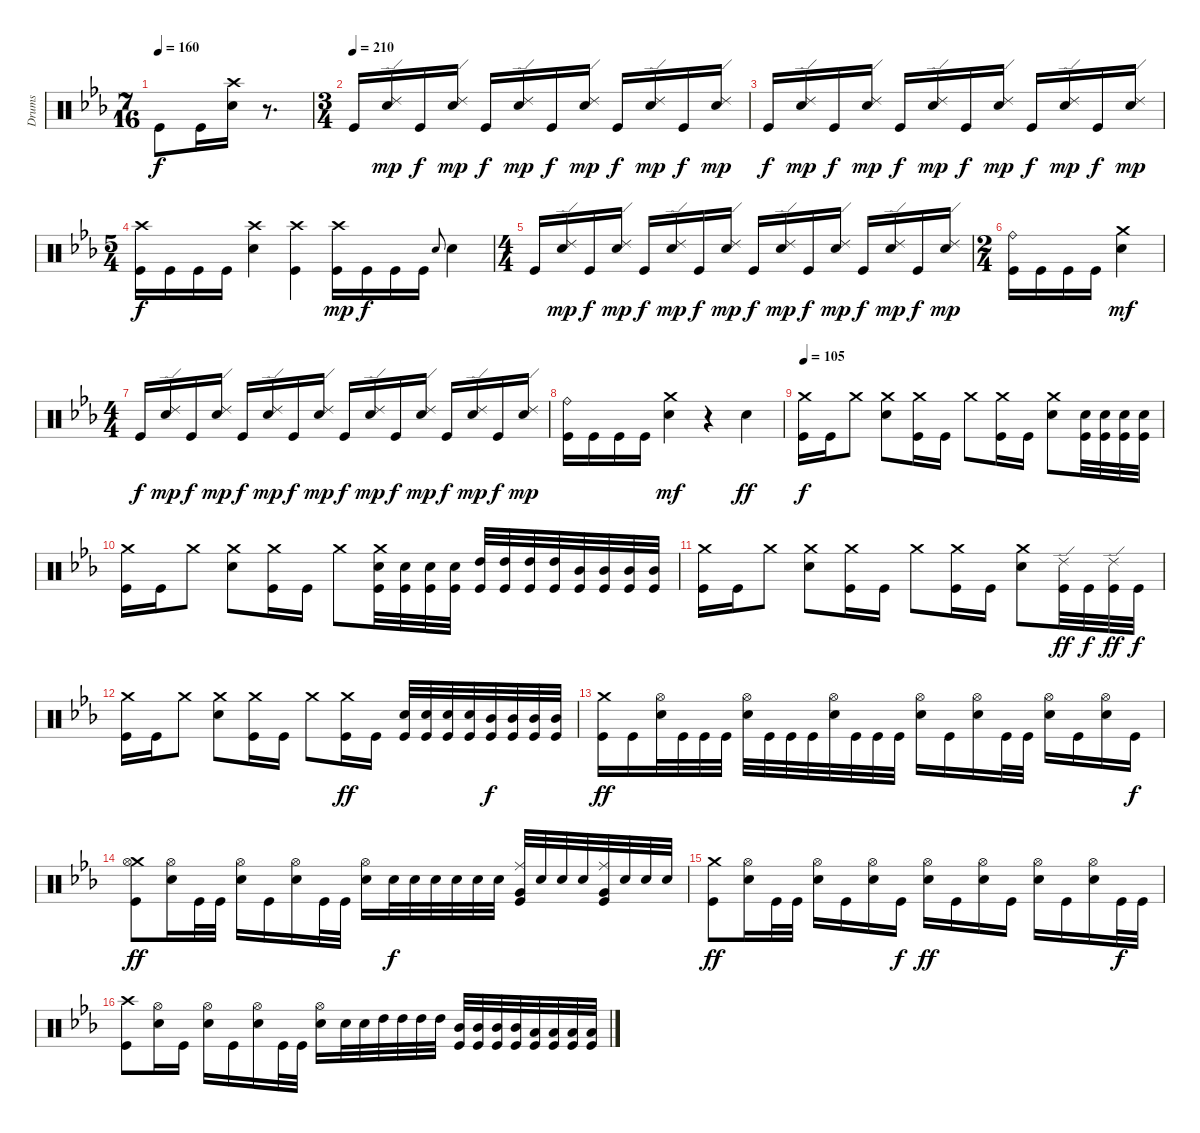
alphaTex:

\track ("Drums" "Drums") {instrument percussion}
\staff {score}
\articulation defaults
\ts (7 16)
\tempo 160
\clef neutral
\ks cminor "Kick (hit)".8{dy f} "Kick (hit)".16
("Crash high (hit)" "Electric Snare (hit)").16 r.8{d} |
\ts (3 4)
\tempo (210)
"Kick (hit)".16 ("Ride (edge) 2" "Electric Snare (hit)").16{dy mp} "Kick (hit)".16{dy f} ("Ride (edge) 2" "Electric Snare (hit)").16{dy mp} "Kick (hit)".16{dy f} ("Ride (edge) 2" "Electric Snare (hit)").16{dy mp} "Kick (hit)".16{dy f} ("Ride (edge) 2" "Electric Snare (hit)").16{dy mp} "Kick (hit)".16{dy f} ("Ride (edge) 2" "Electric Snare (hit)").16{dy mp} "Kick (hit)".16{dy f} ("Ride (edge) 2" "Electric Snare (hit)").16{dy mp} |
"Kick (hit)".16{dy f} ("Ride (edge) 2" "Electric Snare (hit)").16{dy mp} "Kick (hit)".16{dy f} ("Ride (edge) 2" "Electric Snare (hit)").16{dy mp} "Kick (hit)".16{dy f} ("Ride (edge) 2" "Electric Snare (hit)").16{dy mp} "Kick (hit)".16{dy f} ("Ride (edge) 2" "Electric Snare (hit)").16{dy mp} "Kick (hit)".16{dy f} ("Ride (edge) 2" "Electric Snare (hit)").16{dy mp} "Kick (hit)".16{dy f} ("Ride (edge) 2" "Electric Snare (hit)").16{dy mp} |
\ts (5 4)
("Crash high (hit)" "Kick (hit)").16{dy f} "Kick (hit)".16 "Kick (hit)".16 "Kick (hit)".16 ("Crash high (hit)" "Electric Snare (hit)").4 ("Crash high (hit)" "Kick (hit)").4 ("Crash high (hit)" "Kick (hit)").16{dy mp} "Kick (hit)".16{dy f} "Kick (hit)".16 "Kick (hit)".16 "Electric Snare (hit)".8{gr onbeat} "Electric Snare (hit)".4 |
\ts (4 4)
"Kick (hit)".16 ("Ride (edge) 2" "Electric Snare (hit)").16{dy mp} "Kick (hit)".16{dy f} ("Ride (edge) 2" "Electric Snare (hit)").16{dy mp} "Kick (hit)".16{dy f} ("Ride (edge) 2" "Electric Snare (hit)").16{dy mp} "Kick (hit)".16{dy f} ("Ride (edge) 2" "Electric Snare (hit)").16{dy mp} "Kick (hit)".16{dy f} ("Ride (edge) 2" "Electric Snare (hit)").16{dy mp} "Kick (hit)".16{dy f} ("Ride (edge) 2" "Electric Snare (hit)").16{dy mp} "Kick (hit)".16{dy f} ("Ride (edge) 2" "Electric Snare (hit)").16{dy mp} "Kick (hit)".16{dy f} ("Ride (edge) 2" "Electric Snare (hit)").16{dy mp} |
\ts (2 4)
("Ride (bell)" "Kick (hit)").16 "Kick (hit)".16 "Kick (hit)".16 "Kick (hit)".16 ("Crash medium (hit)" "Electric Snare (hit)").4{dy mf} |
\ts (4 4)
"Kick (hit)".16{dy f} ("Ride (edge) 2" "Electric Snare (hit)").16{dy mp} "Kick (hit)".16{dy f} ("Ride (edge) 2" "Electric Snare (hit)").16{dy mp} "Kick (hit)".16{dy f} ("Ride (edge) 2" "Electric Snare (hit)").16{dy mp} "Kick (hit)".16{dy f} ("Ride (edge) 2" "Electric Snare (hit)").16{dy mp} "Kick (hit)".16{dy f} ("Ride (edge) 2" "Electric Snare (hit)").16{dy mp} "Kick (hit)".16{dy f} ("Ride (edge) 2" "Electric Snare (hit)").16{dy mp} "Kick (hit)".16{dy f} ("Ride (edge) 2" "Electric Snare (hit)").16{dy mp} "Kick (hit)".16{dy f} ("Ride (edge) 2" "Electric Snare (hit)").16{dy mp} |
("Ride (bell)" "Kick (hit)").16 "Kick (hit)".16 "Kick (hit)".16 "Kick (hit)".16 ("Crash medium (hit)" "Electric Snare (hit)").4{dy mf} r.4 "Electric Snare (hit)".4{dy ff} |
\tempo 105
("Crash medium (hit)" "Kick (hit)").16{dy f} "Kick (hit)".16 "Crash medium (hit)".8 ("Crash medium (hit)" "Electric Snare (hit)").8 ("Crash medium (hit)" "Kick (hit)").16 "Kick (hit)".16 "Crash medium (hit)".8 ("Crash medium (hit)" "Kick (hit)").16 "Kick (hit)".16 ("Crash medium (hit)" "Electric Snare (hit)").8 ("Electric Snare (hit)" "Kick (hit)").32 ("Electric Snare (hit)" "Kick (hit)").32 ("Electric Snare (hit)" "Kick (hit)").32 ("Electric Snare (hit)" "Kick (hit)").32 |
("Crash medium (hit)" "Kick (hit)").16 "Kick (hit)".16 "Crash medium (hit)".8 ("Crash medium (hit)" "Electric Snare (hit)").8 ("Crash medium (hit)" "Kick (hit)").16 "Kick (hit)".16 "Crash medium (hit)".8 ("Crash medium (hit)" "Electric Snare (hit)" "Kick (hit)").32 ("Electric Snare (hit)" "Kick (hit)").32 ("Electric Snare (hit)" "Kick (hit)").32 ("Electric Snare (hit)" "Kick (hit)").32 ("High Tom (hit)" "Kick (hit)").32 ("High Tom (hit)" "Kick (hit)").32 ("High Tom (hit)" "Kick (hit)").32 ("High Tom (hit)" "Kick (hit)").32 ("Mid Tom (hit)" "Kick (hit)").32 ("Mid Tom (hit)" "Kick (hit)").32 ("Mid Tom (hit)" "Kick (hit)").32 ("Mid Tom (hit)" "Kick (hit)").32 |
("Crash medium (hit)" "Kick (hit)").16 "Kick (hit)".16 "Crash medium (hit)".8 ("Crash medium (hit)" "Electric Snare (hit)").8 ("Crash medium (hit)" "Kick (hit)").16 "Kick (hit)".16 "Crash medium (hit)".8 ("Crash medium (hit)" "Kick (hit)").16 "Kick (hit)".16 ("Crash medium (hit)" "Electric Snare (hit)").8 ("Ride (edge) 2" "Kick (hit)").32{dy ff} "Kick (hit)".32{dy f} ("Ride (edge) 2" "Kick (hit)").32{dy ff} "Kick (hit)".32{dy f} |
("Crash medium (hit)" "Kick (hit)").16 "Kick (hit)".16 "Crash medium (hit)".8 ("Crash medium (hit)" "Electric Snare (hit)").8 ("Crash medium (hit)" "Kick (hit)").16 "Kick (hit)".16 "Crash medium (hit)".8 ("Crash medium (hit)" "Kick (hit)").16{dy ff} "Kick (hit)".16 ("Electric Snare (hit)" "Kick (hit)").32 ("Electric Snare (hit)" "Kick (hit)").32 ("Electric Snare (hit)" "Kick (hit)").32 ("Electric Snare (hit)" "Kick (hit)").32 ("Mid Tom (hit)" "Kick (hit)").32{dy f} ("Mid Tom (hit)" "Kick (hit)").32 ("Mid Tom (hit)" "Kick (hit)").32 ("Mid Tom (hit)" "Kick (hit)").32 |
("Crash medium (hit)" "Kick (hit)").16{dy ff} "Kick (hit)".16 ("Hi-Hat (open)" "Electric Snare (hit)").32 "Kick (hit)".32 "Kick (hit)".32 "Kick (hit)".32 ("Hi-Hat (open)" "Electric Snare (hit)").32 "Kick (hit)".32 "Kick (hit)".32 "Kick (hit)".32 ("Hi-Hat (open)" "Electric Snare (hit)").32 "Kick (hit)".32 "Kick (hit)".32 "Kick (hit)".32 ("Hi-Hat (open)" "Electric Snare (hit)").16 "Kick (hit)".16 ("Hi-Hat (open)" "Electric Snare (hit)").16 "Kick (hit)".32 "Kick (hit)".32 ("Hi-Hat (open)" "Electric Snare (hit)").16 "Kick (hit)".16 ("Hi-Hat (open)" "Electric Snare (hit)").16 "Kick (hit)".16{dy f} |
("Crash medium (hit)" "Hi-Hat (open)" "Kick (hit)").8{dy ff} ("Hi-Hat (open)" "Electric Snare (hit)").16 "Kick (hit)".32 "Kick (hit)".32 ("Hi-Hat (open)" "Electric Snare (hit)").16 "Kick (hit)".16 ("Hi-Hat (open)" "Electric Snare (hit)").16 "Kick (hit)".32 "Kick (hit)".32 ("Hi-Hat (open)" "Electric Snare (hit)").16 "Electric Snare (hit)".32{dy f} "Electric Snare (hit)".32 "Electric Snare (hit)".32 "Electric Snare (hit)".32 "Electric Snare (hit)".32 "Electric Snare (hit)".32 ("Ride (middle)" "Very Low Tom (hit)" "Kick (hit)").32 "Electric Snare (hit)".32 "Electric Snare (hit)".32 "Electric Snare (hit)".32 ("Ride (middle)" "Very Low Tom (hit)" "Kick (hit)").32 "Electric Snare (hit)".32 "Electric Snare (hit)".32 "Electric Snare (hit)".32 |
("Crash medium (hit)" "Kick (hit)").8{dy ff} ("Hi-Hat (open)" "Electric Snare (hit)").16 "Kick (hit)".32 "Kick (hit)".32 ("Hi-Hat (open)" "Electric Snare (hit)").16 "Kick (hit)".16 ("Hi-Hat (open)" "Electric Snare (hit)").16 "Kick (hit)".16{dy f} ("Hi-Hat (open)" "Electric Snare (hit)").16{dy ff} "Kick (hit)".16 ("Hi-Hat (open)" "Electric Snare (hit)").16 "Kick (hit)".16 ("Hi-Hat (open)" "Electric Snare (hit)").16 "Kick (hit)".16 ("Hi-Hat (open)" "Electric Snare (hit)").16 "Kick (hit)".32{dy f} "Kick (hit)".32 |
("Crash high (hit)" "Kick (hit)").8 ("Hi-Hat (open)" "Electric Snare (hit)").16 "Kick (hit)".16 ("Hi-Hat (open)" "Electric Snare (hit)").16 "Kick (hit)".16 ("Hi-Hat (open)" "Electric Snare (hit)").16 "Kick (hit)".32 "Kick (hit)".32 ("Hi-Hat (open)" "Electric Snare (hit)").16 "Electric Snare (hit)".32 "Electric Snare (hit)".32 "High Tom (hit)".32 "High Tom (hit)".32 "High Tom (hit)".32 "High Tom (hit)".32 ("Mid Tom (hit)" "Kick (hit)").32 ("Mid Tom (hit)" "Kick (hit)").32 ("Mid Tom (hit)" "Kick (hit)").32 ("Mid Tom (hit)" "Kick (hit)").32 ("Low Tom (hit)" "Kick (hit)").32 ("Low Tom (hit)" "Kick (hit)").32 ("Low Tom (hit)" "Kick (hit)").32 ("Low Tom (hit)" "Kick (hit)").32
